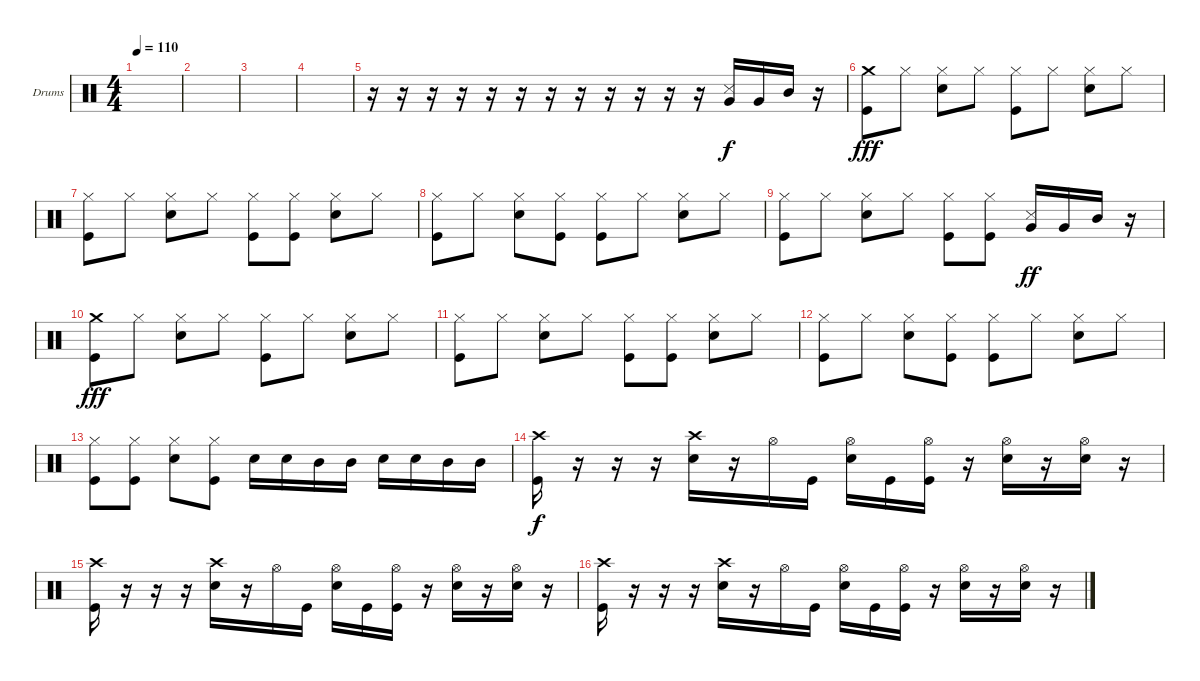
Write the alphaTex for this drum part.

\defaultSystemsLayout 4
\bracketExtendMode groupsimilarinstruments
\firstSystemTrackNameOrientation horizontal
\otherSystemsTrackNameOrientation horizontal
\track ("Drumkit" "Drums") {instrument percussion}
\staff {score}
\articulation defaults
\ts (4 4)
\tempo 110
\clef neutral
\ks c
|
\scale
0.262911 |
\scale
0.262911 |
\scale
0.333333 |
\scale
0.333333 r.16 r.16 r.16 r.16 r.16 r.16 r.16 r.16 r.16 r.16 r.16 r.16 ("Very Low Tom (hit)" "Snare (side stick) 3").16 "Very Low Tom (hit)".16 "Mid Tom (hit)".16 r.16 |
\scale
0.333333 ("Crash medium (hit)" "Kick (hit)").8{dy fff} "Hi-Hat (closed)".8 ("Hi-Hat (closed)" "Snare (hit) 2").8 "Hi-Hat (closed)".8 ("Hi-Hat (closed)" "Kick (hit)").8 "Hi-Hat (closed)".8 ("Hi-Hat (closed)" "Snare (hit) 2").8 "Hi-Hat (closed)".8 |
\scale
0.333333 ("Kick (hit)" "Hi-Hat (closed)").8 "Hi-Hat (closed)".8 ("Hi-Hat (closed)" "Snare (hit) 2").8 "Hi-Hat (closed)".8 ("Hi-Hat (closed)" "Kick (hit)").8 ("Hi-Hat (closed)" "Kick (hit)").8 ("Hi-Hat (closed)" "Snare (hit) 2").8 "Hi-Hat (closed)".8 |
\scale
0.333333 ("Kick (hit)" "Hi-Hat (closed)").8 "Hi-Hat (closed)".8 ("Hi-Hat (closed)" "Snare (hit) 2").8 ("Hi-Hat (closed)" "Kick (hit)").8 ("Hi-Hat (closed)" "Kick (hit)").8 "Hi-Hat (closed)".8 ("Hi-Hat (closed)" "Snare (hit) 2").8 "Hi-Hat (closed)".8 |
\scale
0.333333 ("Kick (hit)" "Hi-Hat (closed)").8 "Hi-Hat (closed)".8 ("Hi-Hat (closed)" "Snare (hit) 2").8 "Hi-Hat (closed)".8 ("Hi-Hat (closed)" "Kick (hit)").8 ("Hi-Hat (closed)" "Kick (hit)").8 ("Very Low Tom (hit)" "Snare (side stick) 3").16{dy ff} "Very Low Tom (hit)".16 "Mid Tom (hit)".16 r.16 |
\scale
0.333333 ("Crash medium (hit)" "Kick (hit)").8{dy fff} "Hi-Hat (closed)".8 ("Hi-Hat (closed)" "Snare (hit) 2").8 "Hi-Hat (closed)".8 ("Hi-Hat (closed)" "Kick (hit)").8 "Hi-Hat (closed)".8 ("Hi-Hat (closed)" "Snare (hit) 2").8 "Hi-Hat (closed)".8 |
\scale
0.333333 ("Kick (hit)" "Hi-Hat (closed)").8 "Hi-Hat (closed)".8 ("Hi-Hat (closed)" "Snare (hit) 2").8 "Hi-Hat (closed)".8 ("Hi-Hat (closed)" "Kick (hit)").8 ("Hi-Hat (closed)" "Kick (hit)").8 ("Hi-Hat (closed)" "Snare (hit) 2").8 "Hi-Hat (closed)".8 |
\scale
0.333333 ("Kick (hit)" "Hi-Hat (closed)").8 "Hi-Hat (closed)".8 ("Hi-Hat (closed)" "Snare (hit) 2").8 ("Hi-Hat (closed)" "Kick (hit)").8 ("Hi-Hat (closed)" "Kick (hit)").8 "Hi-Hat (closed)".8 ("Hi-Hat (closed)" "Snare (hit) 2").8 "Hi-Hat (closed)".8 |
\scale
0.333333 ("Kick (hit)" "Hi-Hat (closed)").8 ("Hi-Hat (closed)" "Kick (hit)").8 ("Hi-Hat (closed)" "Snare (hit) 2").8 ("Hi-Hat (closed)" "Kick (hit)").8 "Snare (hit) 2".16 "Snare (hit) 2".16 "Mid Tom (hit)".16 "Mid Tom (hit)".16 "Snare (hit) 2".16 "Snare (hit) 2".16 "Mid Tom (hit)".16 "Mid Tom (hit)".16 |
\scale
0.333333 ("Crash high (hit)" "Kick (hit)").16{dy f} r.16 r.16 r.16 ("Crash high (hit)" "Snare (hit) 2").16 r.16 "Hi-Hat (open)".16 "Kick (hit)".16 ("Hi-Hat (open)" "Snare (hit) 2").16 "Kick (hit)".16 ("Hi-Hat (open)" "Kick (hit)").16 r.16 ("Hi-Hat (open)" "Snare (hit) 2").16 r.16 ("Hi-Hat (open)" "Snare (hit) 2").16 r.16 |
\scale
0.333333 ("Crash high (hit)" "Kick (hit)").16 r.16 r.16 r.16 ("Crash high (hit)" "Snare (hit) 2").16 r.16 "Hi-Hat (open)".16 "Kick (hit)".16 ("Hi-Hat (open)" "Snare (hit) 2").16 "Kick (hit)".16 ("Hi-Hat (open)" "Kick (hit)").16 r.16 ("Hi-Hat (open)" "Snare (hit) 2").16 r.16 ("Hi-Hat (open)" "Snare (hit) 2").16 r.16 |
\scale
0.333333 ("Crash high (hit)" "Kick (hit)").16 r.16 r.16 r.16 ("Crash high (hit)" "Snare (hit) 2").16 r.16 "Hi-Hat (open)".16 "Kick (hit)".16 ("Hi-Hat (open)" "Snare (hit) 2").16 "Kick (hit)".16 ("Hi-Hat (open)" "Kick (hit)").16 r.16 ("Hi-Hat (open)" "Snare (hit) 2").16 r.16 ("Hi-Hat (open)" "Snare (hit) 2").16 r.16
